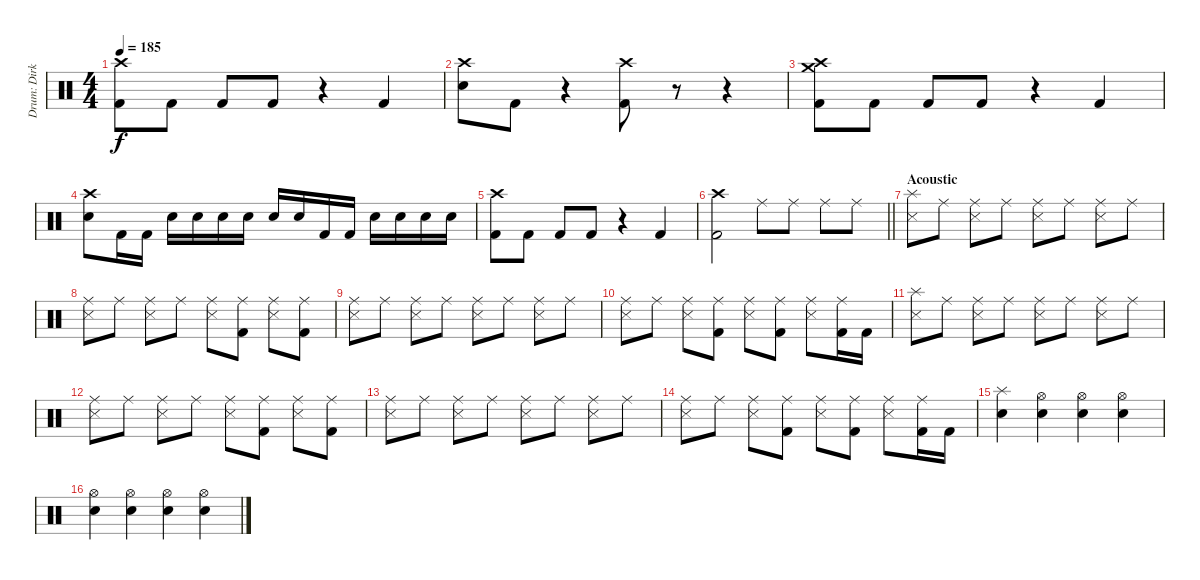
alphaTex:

\track ("Drum: Dirk" "Drum: Dirk") {instrument percussion}
\staff {score}
\articulation defaults
\ts (4 4)
\tempo 185
\clef neutral
\ks c
("Crash high (hit)" "Kick (hit) 2").8{dy f} "Kick (hit) 2".8 "Kick (hit) 2".8 "Kick (hit) 2".8 r.4 "Kick (hit) 2".4 |
("Crash high (hit)" "Electric Snare (hit)").8 "Kick (hit) 2".8 r.4 ("Crash high (hit)" "Kick (hit) 2").8 r.8{volume 0} r.4 |
("Crash high (hit)" "Crash medium (hit)" "Kick (hit) 2").8{volume 12} "Kick (hit) 2".8 "Kick (hit) 2".8 "Kick (hit) 2".8 r.4 "Kick (hit) 2".4 |
("Crash high (hit)" "Electric Snare (hit)").8 "Kick (hit) 2".16 "Kick (hit) 2".16 "Electric Snare (hit)".16 "Electric Snare (hit)".16 "Electric Snare (hit)".16 "Electric Snare (hit)".16 "Electric Snare (hit)".16 "Electric Snare (hit)".16 "Kick (hit) 2".16 "Kick (hit) 2".16 "Electric Snare (hit)".16 "Electric Snare (hit)".16 "Electric Snare (hit)".16 "Electric Snare (hit)".16 |
("Crash high (hit)" "Kick (hit) 2").8 "Kick (hit) 2".8 "Kick (hit) 2".8 "Kick (hit) 2".8 r.4 "Kick (hit) 2".4 |
\barLineRight lightlight
("Crash high (hit)" "Kick (hit) 2").2 "Ride (middle)".8 "Ride (middle)".8 "Ride (middle)".8 "Ride (middle)".8 |
\section ("" "Acoustic")
("Splash (hit)" "Metronome (hit)").8 "Ride (middle)".8 ("Ride (middle)" "Metronome (hit)").8 "Ride (middle)".8 ("Ride (middle)" "Metronome (hit)").8 "Ride (middle)".8 ("Ride (middle)" "Metronome (hit)").8 "Ride (middle)".8 |
("Ride (middle)" "Metronome (hit)").8 "Ride (middle)".8 ("Ride (middle)" "Metronome (hit)").8 "Ride (middle)".8 ("Ride (middle)" "Metronome (hit)").8 ("Ride (middle)" "Kick (hit) 2").8 ("Ride (middle)" "Metronome (hit)").8 ("Ride (middle)" "Kick (hit) 2").8 |
("Ride (middle)" "Metronome (hit)").8 "Ride (middle)".8 ("Ride (middle)" "Metronome (hit)").8 "Ride (middle)".8 ("Ride (middle)" "Metronome (hit)").8 "Ride (middle)".8 ("Ride (middle)" "Metronome (hit)").8 "Ride (middle)".8 |
("Ride (middle)" "Metronome (hit)").8 "Ride (middle)".8 ("Ride (middle)" "Metronome (hit)").8 ("Ride (middle)" "Kick (hit) 2").8 ("Ride (middle)" "Metronome (hit)").8 ("Ride (middle)" "Kick (hit) 2").8 ("Ride (middle)" "Metronome (hit)").8 ("Ride (middle)" "Kick (hit) 2").16 "Kick (hit) 2".16 |
("Splash (hit)" "Metronome (hit)").8 "Ride (middle)".8 ("Ride (middle)" "Metronome (hit)").8 "Ride (middle)".8 ("Ride (middle)" "Metronome (hit)").8 "Ride (middle)".8 ("Ride (middle)" "Metronome (hit)").8 "Ride (middle)".8 |
("Ride (middle)" "Metronome (hit)").8 "Ride (middle)".8 ("Ride (middle)" "Metronome (hit)").8 "Ride (middle)".8 ("Ride (middle)" "Metronome (hit)").8 ("Ride (middle)" "Kick (hit) 2").8 ("Ride (middle)" "Metronome (hit)").8 ("Ride (middle)" "Kick (hit) 2").8 |
("Ride (middle)" "Metronome (hit)").8 "Ride (middle)".8 ("Ride (middle)" "Metronome (hit)").8 "Ride (middle)".8 ("Ride (middle)" "Metronome (hit)").8 "Ride (middle)".8 ("Ride (middle)" "Metronome (hit)").8 "Ride (middle)".8 |
("Ride (middle)" "Metronome (hit)").8 "Ride (middle)".8 ("Ride (middle)" "Metronome (hit)").8 ("Ride (middle)" "Kick (hit) 2").8 ("Ride (middle)" "Metronome (hit)").8 ("Ride (middle)" "Kick (hit) 2").8 ("Ride (middle)" "Metronome (hit)").8 ("Ride (middle)" "Kick (hit) 2").16 "Kick (hit) 2".16 |
("Splash (hit)" "Electric Snare (hit)").4 ("Hi-Hat (open)" "Electric Snare (hit)").4 ("Hi-Hat (open)" "Electric Snare (hit)").4 ("Hi-Hat (open)" "Electric Snare (hit)").4 |
("Hi-Hat (open)" "Electric Snare (hit)").4 ("Hi-Hat (open)" "Electric Snare (hit)").4 ("Hi-Hat (open)" "Electric Snare (hit)").4 ("Hi-Hat (open)" "Electric Snare (hit)").4
